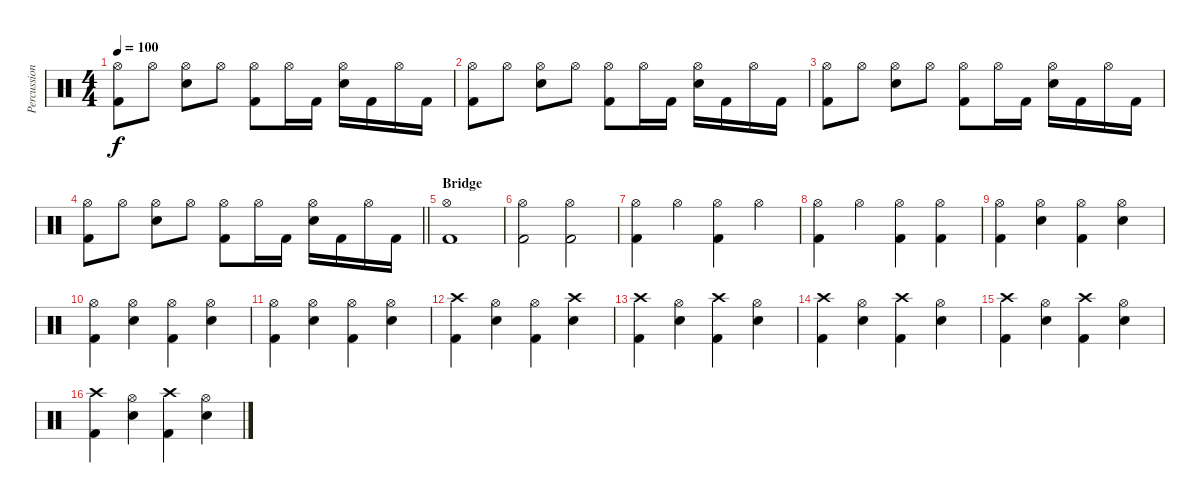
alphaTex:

\track ("Percussion" "Percussion") {instrument percussion}
\staff {score}
\articulation defaults
\ts (4 4)
\tempo 100
\clef neutral
\ks c
("Hi-Hat (open)" "Kick (hit) 2").8{dy f} "Hi-Hat (open)".8 ("Hi-Hat (open)" "Electric Snare (hit)").8 "Hi-Hat (open)".8 ("Hi-Hat (open)" "Kick (hit) 2").8 "Hi-Hat (open)".16 "Kick (hit) 2".16 ("Hi-Hat (open)" "Electric Snare (hit)").16 "Kick (hit) 2".16 "Hi-Hat (open)".16 "Kick (hit) 2".16 |
("Hi-Hat (open)" "Kick (hit) 2").8 "Hi-Hat (open)".8 ("Hi-Hat (open)" "Electric Snare (hit)").8 "Hi-Hat (open)".8 ("Hi-Hat (open)" "Kick (hit) 2").8 "Hi-Hat (open)".16 "Kick (hit) 2".16 ("Hi-Hat (open)" "Electric Snare (hit)").16 "Kick (hit) 2".16 "Hi-Hat (open)".16 "Kick (hit) 2".16 |
("Hi-Hat (open)" "Kick (hit) 2").8 "Hi-Hat (open)".8 ("Hi-Hat (open)" "Electric Snare (hit)").8 "Hi-Hat (open)".8 ("Hi-Hat (open)" "Kick (hit) 2").8 "Hi-Hat (open)".16 "Kick (hit) 2".16 ("Hi-Hat (open)" "Electric Snare (hit)").16 "Kick (hit) 2".16 "Hi-Hat (open)".16 "Kick (hit) 2".16 |
\barLineRight lightlight
("Hi-Hat (open)" "Kick (hit) 2").8 "Hi-Hat (open)".8 ("Hi-Hat (open)" "Electric Snare (hit)").8 "Hi-Hat (open)".8 ("Hi-Hat (open)" "Kick (hit) 2").8 "Hi-Hat (open)".16 "Kick (hit) 2".16 ("Hi-Hat (open)" "Electric Snare (hit)").16 "Kick (hit) 2".16 "Hi-Hat (open)".16 "Kick (hit) 2".16 |
\section ("" "Bridge")
("Hi-Hat (open)" "Kick (hit) 2").1 |
("Hi-Hat (open)" "Kick (hit) 2").2 ("Hi-Hat (open)" "Kick (hit) 2").2 |
("Hi-Hat (open)" "Kick (hit) 2").4 "Hi-Hat (open)".4 ("Hi-Hat (open)" "Kick (hit) 2").4 "Hi-Hat (open)".4 |
("Hi-Hat (open)" "Kick (hit) 2").4 "Hi-Hat (open)".4 ("Hi-Hat (open)" "Kick (hit) 2").4 ("Hi-Hat (open)" "Kick (hit) 2").4 |
("Hi-Hat (open)" "Kick (hit) 2").4 ("Hi-Hat (open)" "Electric Snare (hit)").4 ("Hi-Hat (open)" "Kick (hit) 2").4 ("Hi-Hat (open)" "Electric Snare (hit)").4 |
("Hi-Hat (open)" "Kick (hit) 2").4 ("Hi-Hat (open)" "Electric Snare (hit)").4 ("Hi-Hat (open)" "Kick (hit) 2").4 ("Hi-Hat (open)" "Electric Snare (hit)").4 |
("Hi-Hat (open)" "Kick (hit) 2").4 ("Hi-Hat (open)" "Electric Snare (hit)").4 ("Hi-Hat (open)" "Kick (hit) 2").4 ("Hi-Hat (open)" "Electric Snare (hit)").4 |
("Crash high (hit)" "Kick (hit) 2").4 ("Hi-Hat (open)" "Electric Snare (hit)").4 ("Hi-Hat (open)" "Kick (hit) 2").4 ("Crash high (hit)" "Electric Snare (hit)").4 |
("Crash high (hit)" "Kick (hit) 2").4 ("Hi-Hat (open)" "Electric Snare (hit)").4 ("Crash high (hit)" "Kick (hit) 2").4 ("Hi-Hat (open)" "Electric Snare (hit)").4 |
("Crash high (hit)" "Kick (hit) 2").4 ("Hi-Hat (open)" "Electric Snare (hit)").4 ("Crash high (hit)" "Kick (hit) 2").4 ("Hi-Hat (open)" "Electric Snare (hit)").4 |
("Crash high (hit)" "Kick (hit) 2").4 ("Hi-Hat (open)" "Electric Snare (hit)").4 ("Crash high (hit)" "Kick (hit) 2").4 ("Hi-Hat (open)" "Electric Snare (hit)").4 |
("Crash high (hit)" "Kick (hit) 2").4 ("Hi-Hat (open)" "Electric Snare (hit)").4 ("Crash high (hit)" "Kick (hit) 2").4 ("Hi-Hat (open)" "Electric Snare (hit)").4
